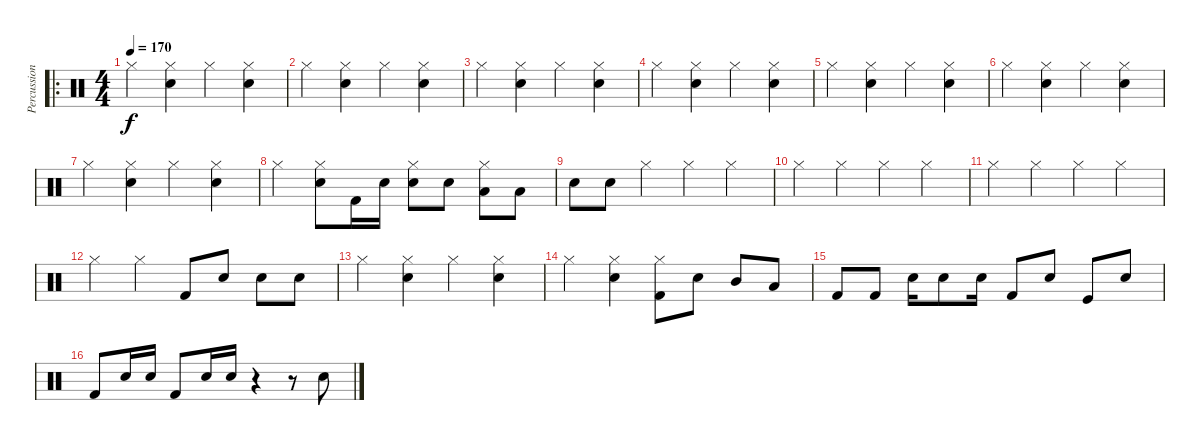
\track ("Percussion" "Percussion") {instrument percussion}
\staff {score}
\articulation defaults
\ro
\ts (4 4)
\tempo 170
\clef neutral
\ks c "Hi-Hat (closed)".4{dy f}
("Hi-Hat (closed)" "Electric Snare (hit)").4 "Hi-Hat (closed)".4 ("Hi-Hat (closed)" "Electric Snare (hit)").4 |
"Hi-Hat (closed)".4 ("Hi-Hat (closed)" "Electric Snare (hit)").4 "Hi-Hat (closed)".4 ("Hi-Hat (closed)" "Electric Snare (hit)").4 |
"Hi-Hat (closed)".4 ("Hi-Hat (closed)" "Electric Snare (hit)").4 "Hi-Hat (closed)".4 ("Hi-Hat (closed)" "Electric Snare (hit)").4 |
"Hi-Hat (closed)".4 ("Hi-Hat (closed)" "Electric Snare (hit)").4 "Hi-Hat (closed)".4 ("Hi-Hat (closed)" "Electric Snare (hit)").4 |
"Hi-Hat (closed)".4 ("Hi-Hat (closed)" "Electric Snare (hit)").4 "Hi-Hat (closed)".4 ("Hi-Hat (closed)" "Electric Snare (hit)").4 |
"Hi-Hat (closed)".4 ("Hi-Hat (closed)" "Electric Snare (hit)").4 "Hi-Hat (closed)".4 ("Hi-Hat (closed)" "Electric Snare (hit)").4 |
"Hi-Hat (closed)".4 ("Hi-Hat (closed)" "Electric Snare (hit)").4 "Hi-Hat (closed)".4 ("Hi-Hat (closed)" "Electric Snare (hit)").4 |
"Hi-Hat (closed)".4 ("Hi-Hat (closed)" "Electric Snare (hit)").8 "Kick (hit) 2".16 "Electric Snare (hit)".16 ("Hi-Hat (closed)" "Electric Snare (hit)").8 "Electric Snare (hit)".8 ("Hi-Hat (closed)" "Low Tom (hit)").8 "Low Tom (hit)".8 |
"Electric Snare (hit)".8 "Electric Snare (hit)".8 "Hi-Hat (closed)".4 "Hi-Hat (closed)".4 "Hi-Hat (closed)".4 |
"Hi-Hat (closed)".4 "Hi-Hat (closed)".4 "Hi-Hat (closed)".4 "Hi-Hat (closed)".4 |
"Hi-Hat (closed)".4 "Hi-Hat (closed)".4 "Hi-Hat (closed)".4 "Hi-Hat (closed)".4 |
"Hi-Hat (closed)".4 "Hi-Hat (closed)".4 "Kick (hit) 2".8 "Snare (hit) 2".8 "Snare (hit) 2".8 "Snare (hit) 2".8 |
"Hi-Hat (closed)".4 ("Hi-Hat (closed)" "Electric Snare (hit)").4 "Hi-Hat (closed)".4 ("Hi-Hat (closed)" "Electric Snare (hit)").4 |
"Hi-Hat (closed)".4 ("Hi-Hat (closed)" "Electric Snare (hit)").4 ("Hi-Hat (closed)" "Kick (hit) 2").8 "Electric Snare (hit)".8 "Mid Tom (hit)".8 "Low Tom (hit)".8 |
"Kick (hit) 2".8 "Kick (hit) 2".8 "Electric Snare (hit)".16 "Electric Snare (hit)".8 "Electric Snare (hit)".16 "Kick (hit) 2".8 "Electric Snare (hit)".8 "Kick (hit)".8 "Electric Snare (hit)".8 |
"Kick (hit) 2".8 "Electric Snare (hit)".16 "Electric Snare (hit)".16 "Kick (hit) 2".8 "Electric Snare (hit)".16 "Electric Snare (hit)".16 r.4 r.8 "Electric Snare (hit)".8
